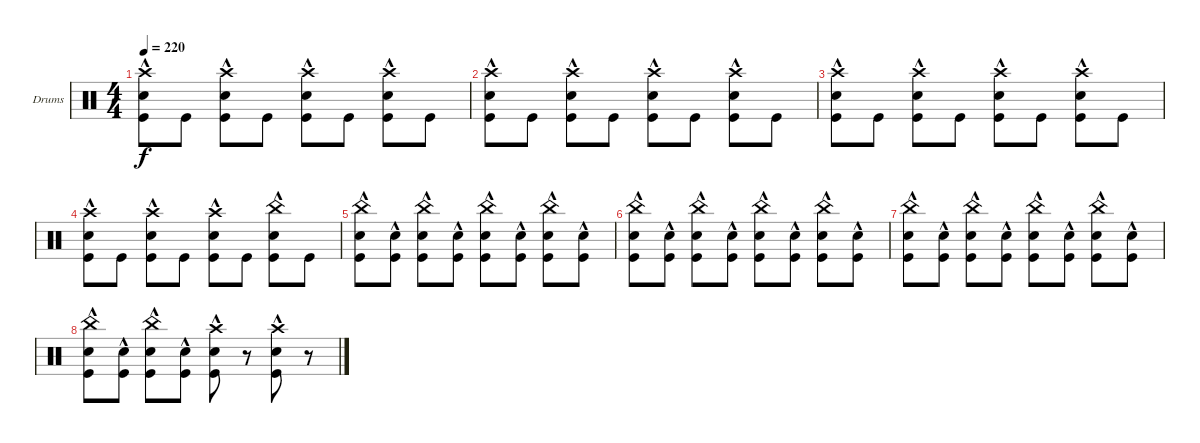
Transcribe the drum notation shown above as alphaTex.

\defaultSystemsLayout 4
\bracketExtendMode groupsimilarinstruments
\firstSystemTrackNameOrientation horizontal
\otherSystemsTrackNameOrientation horizontal
\track ("Drumkit" "Drums") {instrument percussion}
\staff {score}
\articulation defaults
\ts (4 4)
\tempo 220
\clef neutral
\ks c
("Kick (hit)" "Snare (hit) 2"{hac} "Crash high (hit)").8{dy f} "Kick (hit)".8 ("Kick (hit)" "Snare (hit) 2"{hac} "Crash high (hit)").8 "Kick (hit)".8 ("Kick (hit)" "Snare (hit) 2"{hac} "Crash high (hit)").8 "Kick (hit)".8 ("Kick (hit)" "Snare (hit) 2"{hac} "Crash high (hit)").8 "Kick (hit)".8 |
("Kick (hit)" "Snare (hit) 2"{hac} "Crash high (hit)").8 "Kick (hit)".8 ("Kick (hit)" "Snare (hit) 2"{hac} "Crash high (hit)").8 "Kick (hit)".8 ("Kick (hit)" "Snare (hit) 2"{hac} "Crash high (hit)").8 "Kick (hit)".8 ("Kick (hit)" "Snare (hit) 2"{hac} "Crash high (hit)").8 "Kick (hit)".8 |
("Kick (hit)" "Snare (hit) 2"{hac} "Crash high (hit)").8 "Kick (hit)".8 ("Kick (hit)" "Snare (hit) 2"{hac} "Crash high (hit)").8 "Kick (hit)".8 ("Kick (hit)" "Snare (hit) 2"{hac} "Crash high (hit)").8 "Kick (hit)".8 ("Kick (hit)" "Snare (hit) 2"{hac} "Crash high (hit)").8 "Kick (hit)".8 |
("Kick (hit)" "Snare (hit) 2"{hac} "Crash high (hit)").8 "Kick (hit)".8 ("Kick (hit)" "Snare (hit) 2"{hac} "Crash high (hit)").8 "Kick (hit)".8 ("Kick (hit)" "Snare (hit) 2"{hac} "Crash high (hit)").8 "Kick (hit)".8 ("Kick (hit)" "Snare (hit) 2"{hac} "China (hit)").8 "Kick (hit)".8 |
("Kick (hit)" "Snare (hit) 2"{hac} "China (hit)").8 ("Kick (hit)" "Snare (hit) 2"{hac}).8 ("Kick (hit)" "Snare (hit) 2"{hac} "China (hit)").8 ("Kick (hit)" "Snare (hit) 2"{hac}).8 ("Kick (hit)" "Snare (hit) 2"{hac} "China (hit)").8 ("Kick (hit)" "Snare (hit) 2"{hac}).8 ("Kick (hit)" "Snare (hit) 2"{hac} "China (hit)").8 ("Kick (hit)" "Snare (hit) 2"{hac}).8 |
("Kick (hit)" "Snare (hit) 2"{hac} "China (hit)").8 ("Kick (hit)" "Snare (hit) 2"{hac}).8 ("Kick (hit)" "Snare (hit) 2"{hac} "China (hit)").8 ("Kick (hit)" "Snare (hit) 2"{hac}).8 ("Kick (hit)" "Snare (hit) 2"{hac} "China (hit)").8 ("Kick (hit)" "Snare (hit) 2"{hac}).8 ("Kick (hit)" "Snare (hit) 2"{hac} "China (hit)").8 ("Kick (hit)" "Snare (hit) 2"{hac}).8 |
("Kick (hit)" "Snare (hit) 2"{hac} "China (hit)").8 ("Kick (hit)" "Snare (hit) 2"{hac}).8 ("Kick (hit)" "Snare (hit) 2"{hac} "China (hit)").8 ("Kick (hit)" "Snare (hit) 2"{hac}).8 ("Kick (hit)" "Snare (hit) 2"{hac} "China (hit)").8 ("Kick (hit)" "Snare (hit) 2"{hac}).8 ("Kick (hit)" "Snare (hit) 2"{hac} "China (hit)").8 ("Kick (hit)" "Snare (hit) 2"{hac}).8 |
("Kick (hit)" "Snare (hit) 2"{hac} "China (hit)").8 ("Kick (hit)" "Snare (hit) 2"{hac}).8 ("Kick (hit)" "Snare (hit) 2"{hac} "China (hit)").8 ("Kick (hit)" "Snare (hit) 2"{hac}).8 ("Kick (hit)" "Snare (hit) 2"{hac} "Crash high (hit)").8 r.8 ("Kick (hit)" "Snare (hit) 2"{hac} "Crash high (hit)").8 r.8
